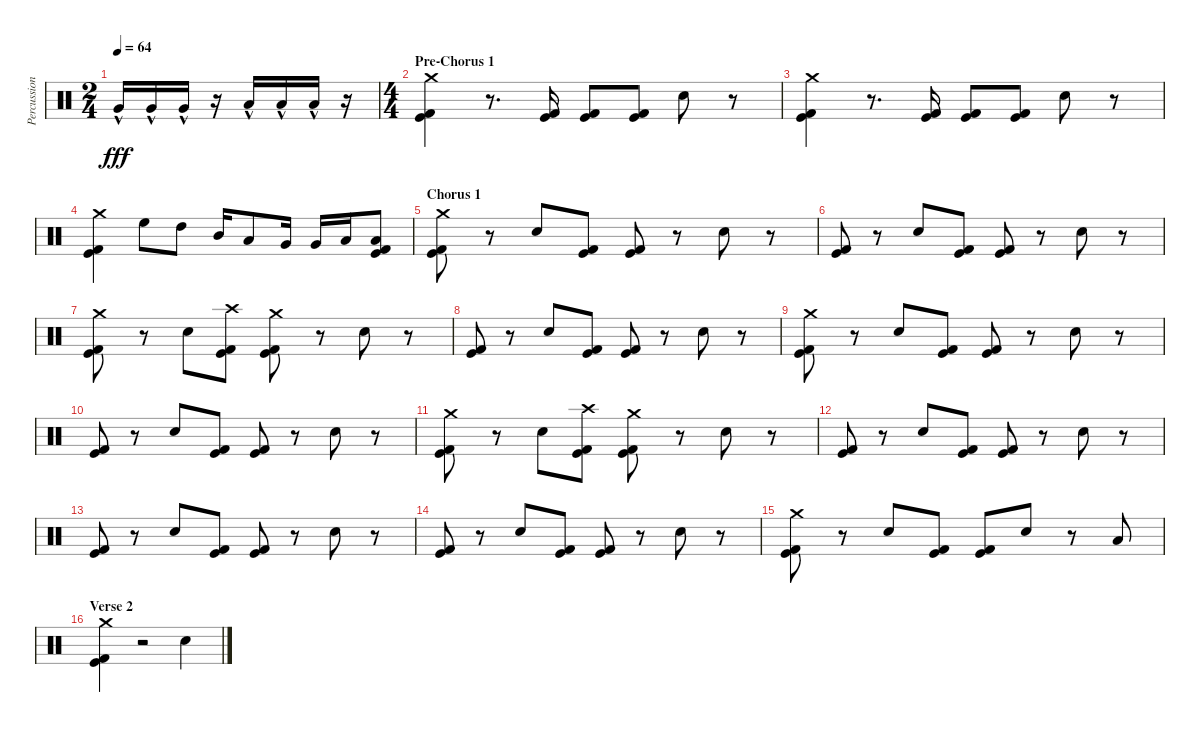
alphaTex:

\track ("Percussion" "Percussion") {instrument percussion}
\staff {score}
\articulation defaults
\ts (2 4)
\tempo 64
\clef neutral
\ks c "Very Low Tom (hit)"{hac}.16{dy fff} "Very Low Tom (hit)"{hac}.16 "Very Low Tom (hit)"{hac}.16
r.16 "Low Floor Tom (hit)"{hac}.16 "Low Floor Tom (hit)"{hac}.16 "Low Floor Tom (hit)"{hac}.16 r.16 |
\ts (4 4)
\section ("" "Pre-Chorus 1")
("Crash medium (hit)" "Kick (hit) 2" "Kick (hit)").4 r.8{d} ("Kick (hit) 2" "Kick (hit)").16 ("Kick (hit) 2" "Kick (hit)").8 ("Kick (hit) 2" "Kick (hit)").8 "Snare (hit) 2".8 r.8 |
("Crash medium (hit)" "Kick (hit) 2" "Kick (hit)").4 r.8{d} ("Kick (hit) 2" "Kick (hit)").16 ("Kick (hit) 2" "Kick (hit)").8 ("Kick (hit) 2" "Kick (hit)").8 "Snare (hit) 2".8 r.8 |
("Crash medium (hit)" "Kick (hit) 2" "Kick (hit)").4 "High Floor Tom (hit)".8 "High Tom (hit)".8 "Mid Tom (hit)".16 "Low Tom (hit)".8 "Very Low Tom (hit)".16 "Very Low Tom (hit)".16 "Low Floor Tom (hit)".16 ("Low Floor Tom (hit)" "Kick (hit) 2" "Kick (hit)").8 |
\section ("" "Chorus 1")
("Crash medium (hit)" "Kick (hit) 2" "Kick (hit)").8 r.8 "Snare (hit) 2".8 ("Kick (hit) 2" "Kick (hit)").8 ("Kick (hit) 2" "Kick (hit)").8 r.8 "Snare (hit) 2".8 r.8 |
("Kick (hit) 2" "Kick (hit)").8 r.8 "Snare (hit) 2".8 ("Kick (hit) 2" "Kick (hit)").8 ("Kick (hit) 2" "Kick (hit)").8 r.8 "Snare (hit) 2".8 r.8 |
("Crash medium (hit)" "Kick (hit) 2" "Kick (hit)").8 r.8 "Snare (hit) 2".8 ("Crash high (hit)" "Kick (hit) 2" "Kick (hit)").8 ("Crash medium (hit)" "Kick (hit) 2" "Kick (hit)").8 r.8 "Snare (hit) 2".8 r.8 |
("Kick (hit) 2" "Kick (hit)").8 r.8 "Snare (hit) 2".8 ("Kick (hit) 2" "Kick (hit)").8 ("Kick (hit) 2" "Kick (hit)").8 r.8 "Snare (hit) 2".8 r.8 |
("Crash medium (hit)" "Kick (hit) 2" "Kick (hit)").8 r.8 "Snare (hit) 2".8 ("Kick (hit) 2" "Kick (hit)").8 ("Kick (hit) 2" "Kick (hit)").8 r.8 "Snare (hit) 2".8 r.8 |
("Kick (hit) 2" "Kick (hit)").8 r.8 "Snare (hit) 2".8 ("Kick (hit) 2" "Kick (hit)").8 ("Kick (hit) 2" "Kick (hit)").8 r.8 "Snare (hit) 2".8 r.8 |
("Crash medium (hit)" "Kick (hit) 2" "Kick (hit)").8 r.8 "Snare (hit) 2".8 ("Crash high (hit)" "Kick (hit) 2" "Kick (hit)").8 ("Crash medium (hit)" "Kick (hit) 2" "Kick (hit)").8 r.8 "Snare (hit) 2".8 r.8 |
("Kick (hit) 2" "Kick (hit)").8 r.8 "Snare (hit) 2".8 ("Kick (hit) 2" "Kick (hit)").8 ("Kick (hit) 2" "Kick (hit)").8 r.8 "Snare (hit) 2".8 r.8 |
("Kick (hit) 2" "Kick (hit)").8 r.8 "Snare (hit) 2".8 ("Kick (hit) 2" "Kick (hit)").8 ("Kick (hit) 2" "Kick (hit)").8 r.8 "Snare (hit) 2".8 r.8 |
("Kick (hit) 2" "Kick (hit)").8 r.8 "Snare (hit) 2".8 ("Kick (hit) 2" "Kick (hit)").8 ("Kick (hit) 2" "Kick (hit)").8 r.8 "Snare (hit) 2".8 r.8 |
("Crash medium (hit)" "Kick (hit) 2" "Kick (hit)").8 r.8 "Snare (hit) 2".8 ("Kick (hit) 2" "Kick (hit)").8 ("Kick (hit) 2" "Kick (hit)").8 "Snare (hit) 2".8 r.8 "Low Tom (hit)".8 |
\section ("" "Verse 2")
("Crash medium (hit)" "Kick (hit) 2" "Kick (hit)").4 r.2 "Snare (hit) 2".4
